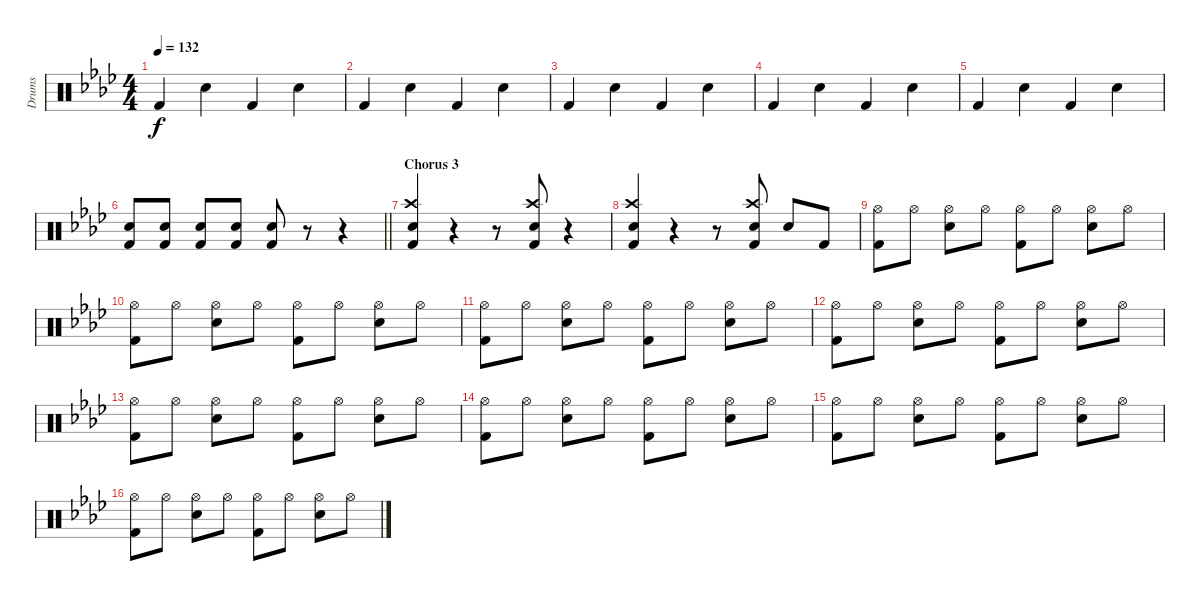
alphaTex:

\track ("Drums" "Drums") {instrument percussion}
\staff {score}
\articulation defaults
\ts (4 4)
\tempo 132
\clef neutral
\ks ab "Kick (hit) 2".4{dy f} "Snare (hit) 2".4 "Kick (hit) 2".4 "Snare (hit) 2".4
|
"Kick (hit) 2".4 "Snare (hit) 2".4 "Kick (hit) 2".4 "Snare (hit) 2".4 |
"Kick (hit) 2".4 "Snare (hit) 2".4 "Kick (hit) 2".4 "Snare (hit) 2".4 |
"Kick (hit) 2".4 "Snare (hit) 2".4 "Kick (hit) 2".4 "Snare (hit) 2".4 |
"Kick (hit) 2".4 "Snare (hit) 2".4 "Kick (hit) 2".4 "Snare (hit) 2".4 |
\barLineRight lightlight
("Snare (hit) 2" "Kick (hit) 2").8 ("Snare (hit) 2" "Kick (hit) 2").8 ("Snare (hit) 2" "Kick (hit) 2").8 ("Snare (hit) 2" "Kick (hit) 2").8 ("Snare (hit) 2" "Kick (hit) 2").8 r.8 r.4 |
\section ("" "Chorus 3")
("Crash high (hit)" "Electric Snare (hit)" "Kick (hit) 2").4 r.4 r.8 ("Crash high (hit)" "Electric Snare (hit)" "Kick (hit) 2").8 r.4 |
("Crash high (hit)" "Electric Snare (hit)" "Kick (hit) 2").4 r.4 r.8 ("Crash high (hit)" "Electric Snare (hit)" "Kick (hit) 2").8 "Electric Snare (hit)".8 "Kick (hit) 2".8 |
("Hi-Hat (open)" "Kick (hit) 2").8 "Hi-Hat (open)".8 ("Hi-Hat (open)" "Electric Snare (hit)").8 "Hi-Hat (open)".8 ("Hi-Hat (open)" "Kick (hit) 2").8 "Hi-Hat (open)".8 ("Hi-Hat (open)" "Electric Snare (hit)").8 "Hi-Hat (open)".8 |
("Hi-Hat (open)" "Kick (hit) 2").8 "Hi-Hat (open)".8 ("Hi-Hat (open)" "Electric Snare (hit)").8 "Hi-Hat (open)".8 ("Hi-Hat (open)" "Kick (hit) 2").8 "Hi-Hat (open)".8 ("Hi-Hat (open)" "Electric Snare (hit)").8 "Hi-Hat (open)".8 |
("Hi-Hat (open)" "Kick (hit) 2").8 "Hi-Hat (open)".8 ("Hi-Hat (open)" "Electric Snare (hit)").8 "Hi-Hat (open)".8 ("Hi-Hat (open)" "Kick (hit) 2").8 "Hi-Hat (open)".8 ("Hi-Hat (open)" "Electric Snare (hit)").8 "Hi-Hat (open)".8 |
("Hi-Hat (open)" "Kick (hit) 2").8 "Hi-Hat (open)".8 ("Hi-Hat (open)" "Electric Snare (hit)").8 "Hi-Hat (open)".8 ("Hi-Hat (open)" "Kick (hit) 2").8 "Hi-Hat (open)".8 ("Hi-Hat (open)" "Electric Snare (hit)").8 "Hi-Hat (open)".8 |
("Hi-Hat (open)" "Kick (hit) 2").8 "Hi-Hat (open)".8 ("Hi-Hat (open)" "Electric Snare (hit)").8 "Hi-Hat (open)".8 ("Hi-Hat (open)" "Kick (hit) 2").8 "Hi-Hat (open)".8 ("Hi-Hat (open)" "Electric Snare (hit)").8 "Hi-Hat (open)".8 |
("Hi-Hat (open)" "Kick (hit) 2").8 "Hi-Hat (open)".8 ("Hi-Hat (open)" "Electric Snare (hit)").8 "Hi-Hat (open)".8 ("Hi-Hat (open)" "Kick (hit) 2").8 "Hi-Hat (open)".8 ("Hi-Hat (open)" "Electric Snare (hit)").8 "Hi-Hat (open)".8 |
("Hi-Hat (open)" "Kick (hit) 2").8 "Hi-Hat (open)".8 ("Hi-Hat (open)" "Electric Snare (hit)").8 "Hi-Hat (open)".8 ("Hi-Hat (open)" "Kick (hit) 2").8 "Hi-Hat (open)".8 ("Hi-Hat (open)" "Electric Snare (hit)").8 "Hi-Hat (open)".8 |
("Hi-Hat (open)" "Kick (hit) 2").8 "Hi-Hat (open)".8 ("Hi-Hat (open)" "Electric Snare (hit)").8 "Hi-Hat (open)".8 ("Hi-Hat (open)" "Kick (hit) 2").8 "Hi-Hat (open)".8 ("Hi-Hat (open)" "Electric Snare (hit)").8 "Hi-Hat (open)".8
